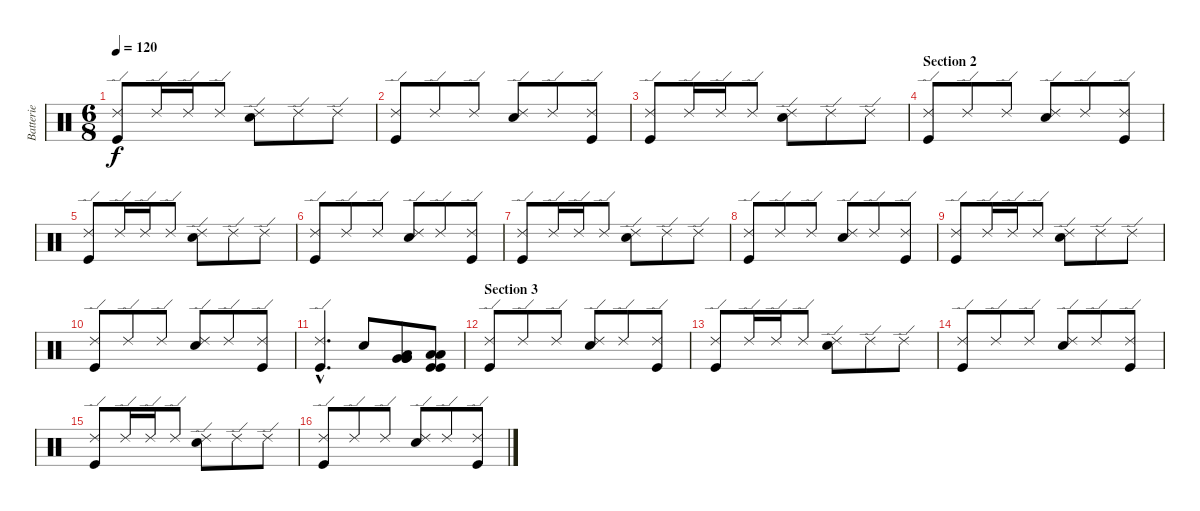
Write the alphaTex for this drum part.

\track ("Batterie" "Batterie") {instrument percussion}
\staff {score}
\articulation defaults
\ts (6 8)
\tempo 120
\clef neutral
\ks c
("Ride (edge) 2" "Kick (hit)").8{dy f} "Ride (edge) 2".16 "Ride (edge) 2".16 "Ride (edge) 2".8 ("Ride (edge) 2" "Snare (hit) 2").8 "Ride (edge) 2".8 "Ride (edge) 2".8 |
("Ride (edge) 2" "Kick (hit)").8 "Ride (edge) 2".8 "Ride (edge) 2".8 ("Ride (edge) 2" "Snare (hit) 2").8 "Ride (edge) 2".8 ("Ride (edge) 2" "Kick (hit)").8 |
("Ride (edge) 2" "Kick (hit)").8 "Ride (edge) 2".16 "Ride (edge) 2".16 "Ride (edge) 2".8 ("Ride (edge) 2" "Snare (hit) 2").8 "Ride (edge) 2".8 "Ride (edge) 2".8 |
\section ("" "Section 2")
("Ride (edge) 2" "Kick (hit)").8 "Ride (edge) 2".8 "Ride (edge) 2".8 ("Ride (edge) 2" "Snare (hit) 2").8 "Ride (edge) 2".8 ("Ride (edge) 2" "Kick (hit)").8 |
("Ride (edge) 2" "Kick (hit)").8 "Ride (edge) 2".16 "Ride (edge) 2".16 "Ride (edge) 2".8 ("Ride (edge) 2" "Snare (hit) 2").8 "Ride (edge) 2".8 "Ride (edge) 2".8 |
("Ride (edge) 2" "Kick (hit)").8 "Ride (edge) 2".8 "Ride (edge) 2".8 ("Ride (edge) 2" "Snare (hit) 2").8 "Ride (edge) 2".8 ("Ride (edge) 2" "Kick (hit)").8 |
("Ride (edge) 2" "Kick (hit)").8 "Ride (edge) 2".16 "Ride (edge) 2".16 "Ride (edge) 2".8 ("Ride (edge) 2" "Snare (hit) 2").8 "Ride (edge) 2".8 "Ride (edge) 2".8 |
("Ride (edge) 2" "Kick (hit)").8 "Ride (edge) 2".8 "Ride (edge) 2".8 ("Ride (edge) 2" "Snare (hit) 2").8 "Ride (edge) 2".8 ("Ride (edge) 2" "Kick (hit)").8 |
("Ride (edge) 2" "Kick (hit)").8 "Ride (edge) 2".16 "Ride (edge) 2".16 "Ride (edge) 2".8 ("Ride (edge) 2" "Snare (hit) 2").8 "Ride (edge) 2".8 "Ride (edge) 2".8 |
("Ride (edge) 2" "Kick (hit)").8 "Ride (edge) 2".8 "Ride (edge) 2".8 ("Ride (edge) 2" "Snare (hit) 2").8 "Ride (edge) 2".8 ("Ride (edge) 2" "Kick (hit)").8 |
("Ride (edge) 2"{hac} "Kick (hit)"{hac}).4{d} "Snare (hit) 2".8 ("Very Low Tom (hit)" "Very Low Tom (hit)" "Very Low Tom (hit)" "Low Floor Tom (hit)").8 ("Low Floor Tom (hit)" "Low Floor Tom (hit)" "Kick (hit)" "Kick (hit)").8 |
\section ("" "Section 3")
("Ride (edge) 2" "Kick (hit)").8{volume 14} "Ride (edge) 2".8 "Ride (edge) 2".8 ("Ride (edge) 2" "Snare (hit) 2").8 "Ride (edge) 2".8 ("Ride (edge) 2" "Kick (hit)").8 |
("Ride (edge) 2" "Kick (hit)").8 "Ride (edge) 2".16 "Ride (edge) 2".16 "Ride (edge) 2".8 ("Ride (edge) 2" "Snare (hit) 2").8 "Ride (edge) 2".8 "Ride (edge) 2".8 |
("Ride (edge) 2" "Kick (hit)").8 "Ride (edge) 2".8 "Ride (edge) 2".8 ("Ride (edge) 2" "Snare (hit) 2").8 "Ride (edge) 2".8 ("Ride (edge) 2" "Kick (hit)").8 |
("Ride (edge) 2" "Kick (hit)").8 "Ride (edge) 2".16 "Ride (edge) 2".16 "Ride (edge) 2".8 ("Ride (edge) 2" "Snare (hit) 2").8 "Ride (edge) 2".8 "Ride (edge) 2".8 |
("Ride (edge) 2" "Kick (hit)").8 "Ride (edge) 2".8 "Ride (edge) 2".8 ("Ride (edge) 2" "Snare (hit) 2").8 "Ride (edge) 2".8 ("Ride (edge) 2" "Kick (hit)").8
